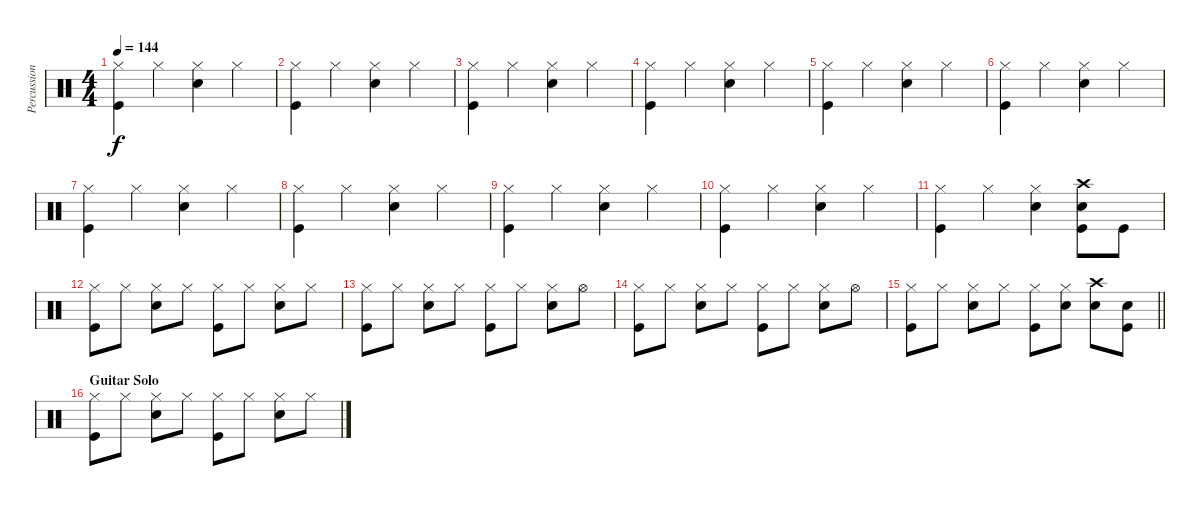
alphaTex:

\track ("Percussion" "Percussion") {instrument percussion}
\staff {score}
\articulation defaults
\ts (4 4)
\tempo 144
\clef neutral
\ks c
("Hi-Hat (closed)" "Kick (hit)").4{dy f} "Hi-Hat (closed)".4 ("Hi-Hat (closed)" "Snare (hit) 2").4 "Hi-Hat (closed)".4 |
("Hi-Hat (closed)" "Kick (hit)").4 "Hi-Hat (closed)".4 ("Hi-Hat (closed)" "Snare (hit) 2").4 "Hi-Hat (closed)".4 |
("Hi-Hat (closed)" "Kick (hit)").4 "Hi-Hat (closed)".4 ("Hi-Hat (closed)" "Snare (hit) 2").4 "Hi-Hat (closed)".4 |
("Hi-Hat (closed)" "Kick (hit)").4 "Hi-Hat (closed)".4 ("Hi-Hat (closed)" "Snare (hit) 2").4 "Hi-Hat (closed)".4 |
("Hi-Hat (closed)" "Kick (hit)").4 "Hi-Hat (closed)".4 ("Hi-Hat (closed)" "Snare (hit) 2").4 "Hi-Hat (closed)".4 |
("Hi-Hat (closed)" "Kick (hit)").4 "Hi-Hat (closed)".4 ("Hi-Hat (closed)" "Snare (hit) 2").4 "Hi-Hat (closed)".4 |
("Hi-Hat (closed)" "Kick (hit)").4 "Hi-Hat (closed)".4 ("Hi-Hat (closed)" "Snare (hit) 2").4 "Hi-Hat (closed)".4 |
("Hi-Hat (closed)" "Kick (hit)").4 "Hi-Hat (closed)".4 ("Hi-Hat (closed)" "Snare (hit) 2").4 "Hi-Hat (closed)".4 |
("Hi-Hat (closed)" "Kick (hit)").4 "Hi-Hat (closed)".4 ("Hi-Hat (closed)" "Snare (hit) 2").4 "Hi-Hat (closed)".4 |
("Hi-Hat (closed)" "Kick (hit)").4 "Hi-Hat (closed)".4 ("Hi-Hat (closed)" "Snare (hit) 2").4 "Hi-Hat (closed)".4 |
("Hi-Hat (closed)" "Kick (hit)").4 "Hi-Hat (closed)".4 ("Hi-Hat (closed)" "Snare (hit) 2").4 ("Crash high (hit)" "Snare (hit) 2" "Kick (hit)").8 "Kick (hit)".8 |
("Hi-Hat (closed)" "Kick (hit)").8 "Hi-Hat (closed)".8 ("Hi-Hat (closed)" "Snare (hit) 2").8 "Hi-Hat (closed)".8 ("Hi-Hat (closed)" "Kick (hit)").8 "Hi-Hat (closed)".8 ("Hi-Hat (closed)" "Snare (hit) 2").8 "Hi-Hat (closed)".8 |
("Hi-Hat (closed)" "Kick (hit)").8 "Hi-Hat (closed)".8 ("Hi-Hat (closed)" "Snare (hit) 2").8 "Hi-Hat (closed)".8 ("Hi-Hat (closed)" "Kick (hit)").8 "Hi-Hat (closed)".8 ("Hi-Hat (closed)" "Snare (hit) 2").8 "Hi-Hat (open)".8 |
("Hi-Hat (closed)" "Kick (hit)").8 "Hi-Hat (closed)".8 ("Hi-Hat (closed)" "Snare (hit) 2").8 "Hi-Hat (closed)".8 ("Hi-Hat (closed)" "Kick (hit)").8 "Hi-Hat (closed)".8 ("Hi-Hat (closed)" "Snare (hit) 2").8 "Hi-Hat (open)".8 |
\barLineRight lightlight
("Hi-Hat (closed)" "Kick (hit)").8 "Hi-Hat (closed)".8 ("Hi-Hat (closed)" "Snare (hit) 2").8 "Hi-Hat (closed)".8 ("Hi-Hat (closed)" "Kick (hit)").8 ("Hi-Hat (closed)" "Snare (hit) 2").8 ("Crash high (hit)" "Snare (hit) 2").8 ("Snare (hit) 2" "Kick (hit)").8 |
\section ("" "Guitar Solo")
("Hi-Hat (closed)" "Kick (hit)").8 "Hi-Hat (closed)".8 ("Hi-Hat (closed)" "Snare (hit) 2").8 "Hi-Hat (closed)".8 ("Hi-Hat (closed)" "Kick (hit)").8 "Hi-Hat (closed)".8 ("Hi-Hat (closed)" "Snare (hit) 2").8 "Hi-Hat (closed)".8
